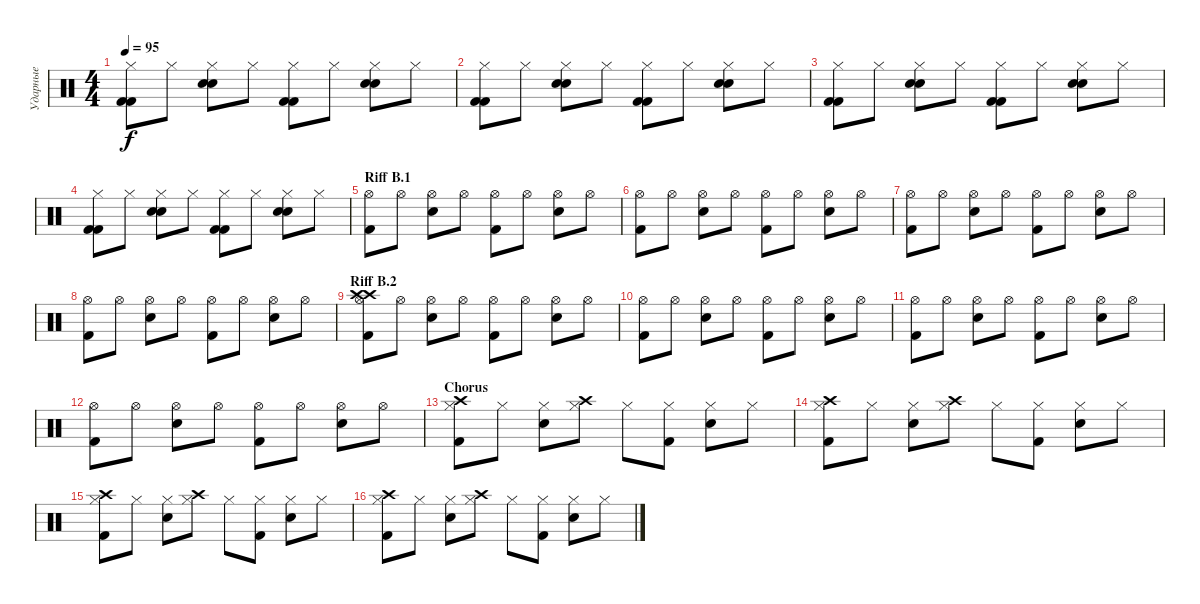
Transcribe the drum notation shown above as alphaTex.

\track ("Ударные" "Ударные") {instrument percussion}
\staff {score}
\articulation defaults
\ts (4 4)
\tempo 95
\clef neutral
\ks c
("Hi-Hat (closed)" "Kick (hit) 2" "Kick (hit) 2").8{dy f} "Hi-Hat (closed)".8 ("Hi-Hat (closed)" "Snare (hit) 2" "Snare (hit) 2").8 "Hi-Hat (closed)".8 ("Hi-Hat (closed)" "Kick (hit) 2" "Kick (hit) 2").8 "Hi-Hat (closed)".8 ("Hi-Hat (closed)" "Snare (hit) 2" "Snare (hit) 2").8 "Hi-Hat (closed)".8 |
("Hi-Hat (closed)" "Kick (hit) 2" "Kick (hit) 2").8 "Hi-Hat (closed)".8 ("Hi-Hat (closed)" "Snare (hit) 2" "Snare (hit) 2").8 "Hi-Hat (closed)".8 ("Hi-Hat (closed)" "Kick (hit) 2" "Kick (hit) 2").8 "Hi-Hat (closed)".8 ("Hi-Hat (closed)" "Snare (hit) 2" "Snare (hit) 2").8 "Hi-Hat (closed)".8 |
("Hi-Hat (closed)" "Kick (hit) 2" "Kick (hit) 2").8 "Hi-Hat (closed)".8 ("Hi-Hat (closed)" "Snare (hit) 2" "Snare (hit) 2").8 "Hi-Hat (closed)".8 ("Hi-Hat (closed)" "Kick (hit) 2" "Kick (hit) 2").8 "Hi-Hat (closed)".8 ("Hi-Hat (closed)" "Snare (hit) 2" "Snare (hit) 2").8 "Hi-Hat (closed)".8 |
("Hi-Hat (closed)" "Kick (hit) 2" "Kick (hit) 2").8 "Hi-Hat (closed)".8 ("Hi-Hat (closed)" "Snare (hit) 2" "Snare (hit) 2").8 "Hi-Hat (closed)".8 ("Hi-Hat (closed)" "Kick (hit) 2" "Kick (hit) 2").8 "Hi-Hat (closed)".8 ("Hi-Hat (closed)" "Snare (hit) 2" "Snare (hit) 2").8 "Hi-Hat (closed)".8 |
\section ("" "Riff B.1")
("Hi-Hat (open)" "Kick (hit) 2").8 "Hi-Hat (open)".8 ("Hi-Hat (open)" "Snare (hit) 2").8 "Hi-Hat (open)".8 ("Hi-Hat (open)" "Kick (hit) 2").8 "Hi-Hat (open)".8 ("Hi-Hat (open)" "Snare (hit) 2").8 "Hi-Hat (open)".8 |
("Hi-Hat (open)" "Kick (hit) 2").8 "Hi-Hat (open)".8 ("Hi-Hat (open)" "Snare (hit) 2").8 "Hi-Hat (open)".8 ("Hi-Hat (open)" "Kick (hit) 2").8 "Hi-Hat (open)".8 ("Hi-Hat (open)" "Snare (hit) 2").8 "Hi-Hat (open)".8 |
("Hi-Hat (open)" "Kick (hit) 2").8 "Hi-Hat (open)".8 ("Hi-Hat (open)" "Snare (hit) 2").8 "Hi-Hat (open)".8 ("Hi-Hat (open)" "Kick (hit) 2").8 "Hi-Hat (open)".8 ("Hi-Hat (open)" "Snare (hit) 2").8 "Hi-Hat (open)".8 |
("Hi-Hat (open)" "Kick (hit) 2").8 "Hi-Hat (open)".8 ("Hi-Hat (open)" "Snare (hit) 2").8 "Hi-Hat (open)".8 ("Hi-Hat (open)" "Kick (hit) 2").8 "Hi-Hat (open)".8 ("Hi-Hat (open)" "Snare (hit) 2").8 "Hi-Hat (open)".8 |
\section ("" "Riff B.2")
("Crash high (hit)" "Hi-Hat (open)" "Crash high (hit)" "Kick (hit) 2").8 "Hi-Hat (open)".8 ("Hi-Hat (open)" "Snare (hit) 2").8 "Hi-Hat (open)".8 ("Hi-Hat (open)" "Kick (hit) 2").8 "Hi-Hat (open)".8 ("Hi-Hat (open)" "Snare (hit) 2").8 "Hi-Hat (open)".8 |
("Hi-Hat (open)" "Kick (hit) 2").8 "Hi-Hat (open)".8 ("Hi-Hat (open)" "Snare (hit) 2").8 "Hi-Hat (open)".8 ("Hi-Hat (open)" "Kick (hit) 2").8 "Hi-Hat (open)".8 ("Hi-Hat (open)" "Snare (hit) 2").8 "Hi-Hat (open)".8 |
("Hi-Hat (open)" "Kick (hit) 2").8 "Hi-Hat (open)".8 ("Hi-Hat (open)" "Snare (hit) 2").8 "Hi-Hat (open)".8 ("Hi-Hat (open)" "Kick (hit) 2").8 "Hi-Hat (open)".8 ("Hi-Hat (open)" "Snare (hit) 2").8 "Hi-Hat (open)".8 |
("Hi-Hat (open)" "Kick (hit) 2").8 "Hi-Hat (open)".8 ("Hi-Hat (open)" "Snare (hit) 2").8 "Hi-Hat (open)".8 ("Hi-Hat (open)" "Kick (hit) 2").8 "Hi-Hat (open)".8 ("Hi-Hat (open)" "Snare (hit) 2").8 "Hi-Hat (open)".8 |
\section ("" "Chorus")
("Crash high (hit)" "Hi-Hat (closed)" "Kick (hit) 2").8 "Hi-Hat (closed)".8 ("Hi-Hat (closed)" "Snare (hit) 2").8 ("Crash high (hit)" "Hi-Hat (closed)").8 "Hi-Hat (closed)".8 ("Hi-Hat (closed)" "Kick (hit) 2").8 ("Hi-Hat (closed)" "Snare (hit) 2").8 "Hi-Hat (closed)".8 |
("Crash high (hit)" "Hi-Hat (closed)" "Kick (hit) 2").8 "Hi-Hat (closed)".8 ("Hi-Hat (closed)" "Snare (hit) 2").8 ("Crash high (hit)" "Hi-Hat (closed)").8 "Hi-Hat (closed)".8 ("Hi-Hat (closed)" "Kick (hit) 2").8 ("Hi-Hat (closed)" "Snare (hit) 2").8 "Hi-Hat (closed)".8 |
("Crash high (hit)" "Hi-Hat (closed)" "Kick (hit) 2").8 "Hi-Hat (closed)".8 ("Hi-Hat (closed)" "Snare (hit) 2").8 ("Crash high (hit)" "Hi-Hat (closed)").8 "Hi-Hat (closed)".8 ("Hi-Hat (closed)" "Kick (hit) 2").8 ("Hi-Hat (closed)" "Snare (hit) 2").8 "Hi-Hat (closed)".8 |
("Crash high (hit)" "Hi-Hat (closed)" "Kick (hit) 2").8 "Hi-Hat (closed)".8 ("Hi-Hat (closed)" "Snare (hit) 2").8 ("Crash high (hit)" "Hi-Hat (closed)").8 "Hi-Hat (closed)".8 ("Hi-Hat (closed)" "Kick (hit) 2").8 ("Hi-Hat (closed)" "Snare (hit) 2").8 "Hi-Hat (closed)".8
